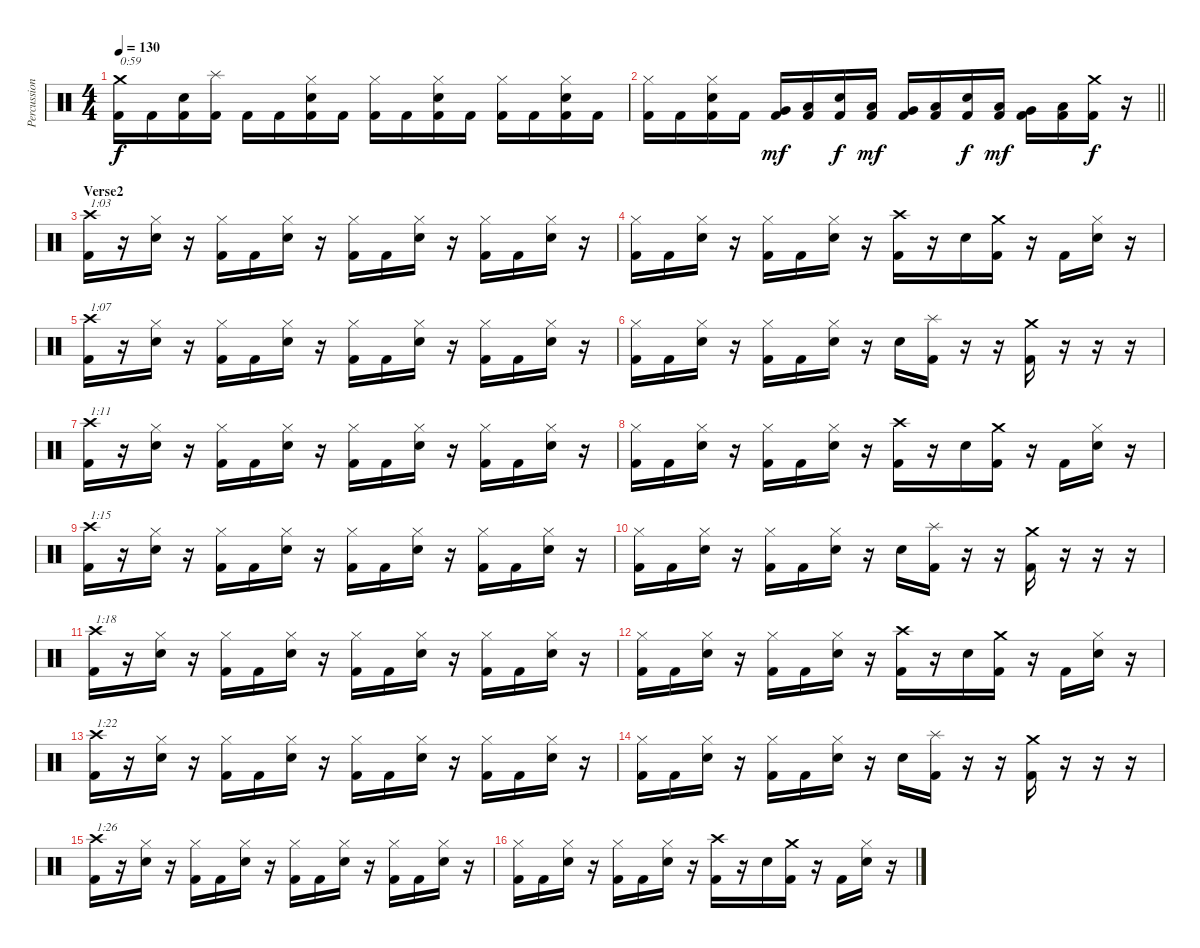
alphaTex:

\track ("Percussion" "Percussion") {instrument percussion}
\staff {score}
\articulation defaults
\ts (4 4)
\tempo 130
\clef neutral
\ks c
("Crash medium (hit)" "Kick (hit) 2").16{txt "0:59" dy f} "Kick (hit) 2".16 ("Electric Snare (hit)" "Kick (hit) 2").16 ("Splash (hit)" "Kick (hit) 2").16 "Kick (hit) 2".16 "Kick (hit) 2".16 ("Hi-Hat (closed)" "Electric Snare (hit)" "Kick (hit) 2").16 "Kick (hit) 2".16 ("Hi-Hat (closed)" "Kick (hit) 2").16 "Kick (hit) 2".16 ("Hi-Hat (closed)" "Electric Snare (hit)" "Kick (hit) 2").16 "Kick (hit) 2".16 ("Hi-Hat (closed)" "Kick (hit) 2").16 "Kick (hit) 2".16 ("Hi-Hat (closed)" "Electric Snare (hit)" "Kick (hit) 2").16 "Kick (hit) 2".16 |
\barLineRight lightlight
("Hi-Hat (closed)" "Kick (hit) 2").16 "Kick (hit) 2".16 ("Hi-Hat (closed)" "Electric Snare (hit)" "Kick (hit) 2").16 "Kick (hit) 2".16 ("Very Low Tom (hit)" "Kick (hit) 2").16{dy mf} ("Low Floor Tom (hit)" "Kick (hit) 2").16 ("Electric Snare (hit)" "Kick (hit) 2").16{dy f} ("Low Floor Tom (hit)" "Kick (hit) 2").16{dy mf} ("Very Low Tom (hit)" "Kick (hit) 2").16 ("Low Floor Tom (hit)" "Kick (hit) 2").16 ("Electric Snare (hit)" "Kick (hit) 2").16{dy f} ("Low Floor Tom (hit)" "Kick (hit) 2").16{dy mf} ("Very Low Tom (hit)" "Kick (hit) 2").16 ("Low Floor Tom (hit)" "Kick (hit) 2").16 ("Crash medium (hit)" "Kick (hit) 2").16{dy f} r.16 |
\section ("" "Verse2")
("Crash high (hit)" "Kick (hit) 2").16{txt "1:03"} r.16 ("Hi-Hat (closed)" "Electric Snare (hit)").16 r.16 ("Hi-Hat (closed)" "Kick (hit) 2").16 "Kick (hit) 2".16 ("Hi-Hat (closed)" "Electric Snare (hit)").16 r.16 ("Hi-Hat (closed)" "Kick (hit) 2").16 "Kick (hit) 2".16 ("Hi-Hat (closed)" "Electric Snare (hit)").16 r.16 ("Hi-Hat (closed)" "Kick (hit) 2").16 "Kick (hit) 2".16 ("Hi-Hat (closed)" "Electric Snare (hit)").16 r.16 |
("Hi-Hat (closed)" "Kick (hit) 2").16 "Kick (hit) 2".16 ("Hi-Hat (closed)" "Electric Snare (hit)").16 r.16 ("Hi-Hat (closed)" "Kick (hit) 2").16 "Kick (hit) 2".16 ("Hi-Hat (closed)" "Electric Snare (hit)").16 r.16 ("Crash high (hit)" "Kick (hit) 2").16 r.16 "Electric Snare (hit)".16 ("Crash medium (hit)" "Kick (hit) 2").16 r.16 "Kick (hit) 2".16 ("Hi-Hat (closed)" "Electric Snare (hit)").16 r.16 |
("Crash high (hit)" "Kick (hit) 2").16{txt "1:07"} r.16 ("Hi-Hat (closed)" "Electric Snare (hit)").16 r.16 ("Hi-Hat (closed)" "Kick (hit) 2").16 "Kick (hit) 2".16 ("Hi-Hat (closed)" "Electric Snare (hit)").16 r.16 ("Hi-Hat (closed)" "Kick (hit) 2").16 "Kick (hit) 2".16 ("Hi-Hat (closed)" "Electric Snare (hit)").16 r.16 ("Hi-Hat (closed)" "Kick (hit) 2").16 "Kick (hit) 2".16 ("Hi-Hat (closed)" "Electric Snare (hit)").16 r.16 |
("Hi-Hat (closed)" "Kick (hit) 2").16 "Kick (hit) 2".16 ("Hi-Hat (closed)" "Electric Snare (hit)").16 r.16 ("Hi-Hat (closed)" "Kick (hit) 2").16 "Kick (hit) 2".16 ("Hi-Hat (closed)" "Electric Snare (hit)").16 r.16 "Electric Snare (hit)".16 ("Splash (hit)" "Kick (hit) 2").16 r.16 r.16 ("Crash medium (hit)" "Kick (hit) 2").16 r.16 r.16 r.16 |
("Crash high (hit)" "Kick (hit) 2").16{txt "1:11"} r.16 ("Hi-Hat (closed)" "Electric Snare (hit)").16 r.16 ("Hi-Hat (closed)" "Kick (hit) 2").16 "Kick (hit) 2".16 ("Hi-Hat (closed)" "Electric Snare (hit)").16 r.16 ("Hi-Hat (closed)" "Kick (hit) 2").16 "Kick (hit) 2".16 ("Hi-Hat (closed)" "Electric Snare (hit)").16 r.16 ("Hi-Hat (closed)" "Kick (hit) 2").16 "Kick (hit) 2".16 ("Hi-Hat (closed)" "Electric Snare (hit)").16 r.16 |
("Hi-Hat (closed)" "Kick (hit) 2").16 "Kick (hit) 2".16 ("Hi-Hat (closed)" "Electric Snare (hit)").16 r.16 ("Hi-Hat (closed)" "Kick (hit) 2").16 "Kick (hit) 2".16 ("Hi-Hat (closed)" "Electric Snare (hit)").16 r.16 ("Crash high (hit)" "Kick (hit) 2").16 r.16 "Electric Snare (hit)".16 ("Crash medium (hit)" "Kick (hit) 2").16 r.16 "Kick (hit) 2".16 ("Hi-Hat (closed)" "Electric Snare (hit)").16 r.16 |
("Crash high (hit)" "Kick (hit) 2").16{txt "1:15"} r.16 ("Hi-Hat (closed)" "Electric Snare (hit)").16 r.16 ("Hi-Hat (closed)" "Kick (hit) 2").16 "Kick (hit) 2".16 ("Hi-Hat (closed)" "Electric Snare (hit)").16 r.16 ("Hi-Hat (closed)" "Kick (hit) 2").16 "Kick (hit) 2".16 ("Hi-Hat (closed)" "Electric Snare (hit)").16 r.16 ("Hi-Hat (closed)" "Kick (hit) 2").16 "Kick (hit) 2".16 ("Hi-Hat (closed)" "Electric Snare (hit)").16 r.16 |
("Hi-Hat (closed)" "Kick (hit) 2").16 "Kick (hit) 2".16 ("Hi-Hat (closed)" "Electric Snare (hit)").16 r.16 ("Hi-Hat (closed)" "Kick (hit) 2").16 "Kick (hit) 2".16 ("Hi-Hat (closed)" "Electric Snare (hit)").16 r.16 "Electric Snare (hit)".16 ("Splash (hit)" "Kick (hit) 2").16 r.16 r.16 ("Crash medium (hit)" "Kick (hit) 2").16 r.16 r.16 r.16 |
("Crash high (hit)" "Kick (hit) 2").16{txt "1:18"} r.16 ("Hi-Hat (closed)" "Electric Snare (hit)").16 r.16 ("Hi-Hat (closed)" "Kick (hit) 2").16 "Kick (hit) 2".16 ("Hi-Hat (closed)" "Electric Snare (hit)").16 r.16 ("Hi-Hat (closed)" "Kick (hit) 2").16 "Kick (hit) 2".16 ("Hi-Hat (closed)" "Electric Snare (hit)").16 r.16 ("Hi-Hat (closed)" "Kick (hit) 2").16 "Kick (hit) 2".16 ("Hi-Hat (closed)" "Electric Snare (hit)").16 r.16 |
("Hi-Hat (closed)" "Kick (hit) 2").16 "Kick (hit) 2".16 ("Hi-Hat (closed)" "Electric Snare (hit)").16 r.16 ("Hi-Hat (closed)" "Kick (hit) 2").16 "Kick (hit) 2".16 ("Hi-Hat (closed)" "Electric Snare (hit)").16 r.16 ("Crash high (hit)" "Kick (hit) 2").16 r.16 "Electric Snare (hit)".16 ("Crash medium (hit)" "Kick (hit) 2").16 r.16 "Kick (hit) 2".16 ("Hi-Hat (closed)" "Electric Snare (hit)").16 r.16 |
("Crash high (hit)" "Kick (hit) 2").16{txt "1:22"} r.16 ("Hi-Hat (closed)" "Electric Snare (hit)").16 r.16 ("Hi-Hat (closed)" "Kick (hit) 2").16 "Kick (hit) 2".16 ("Hi-Hat (closed)" "Electric Snare (hit)").16 r.16 ("Hi-Hat (closed)" "Kick (hit) 2").16 "Kick (hit) 2".16 ("Hi-Hat (closed)" "Electric Snare (hit)").16 r.16 ("Hi-Hat (closed)" "Kick (hit) 2").16 "Kick (hit) 2".16 ("Hi-Hat (closed)" "Electric Snare (hit)").16 r.16 |
("Hi-Hat (closed)" "Kick (hit) 2").16 "Kick (hit) 2".16 ("Hi-Hat (closed)" "Electric Snare (hit)").16 r.16 ("Hi-Hat (closed)" "Kick (hit) 2").16 "Kick (hit) 2".16 ("Hi-Hat (closed)" "Electric Snare (hit)").16 r.16 "Electric Snare (hit)".16 ("Splash (hit)" "Kick (hit) 2").16 r.16 r.16 ("Crash medium (hit)" "Kick (hit) 2").16 r.16 r.16 r.16 |
("Crash high (hit)" "Kick (hit) 2").16{txt "1:26"} r.16 ("Hi-Hat (closed)" "Electric Snare (hit)").16 r.16 ("Hi-Hat (closed)" "Kick (hit) 2").16 "Kick (hit) 2".16 ("Hi-Hat (closed)" "Electric Snare (hit)").16 r.16 ("Hi-Hat (closed)" "Kick (hit) 2").16 "Kick (hit) 2".16 ("Hi-Hat (closed)" "Electric Snare (hit)").16 r.16 ("Hi-Hat (closed)" "Kick (hit) 2").16 "Kick (hit) 2".16 ("Hi-Hat (closed)" "Electric Snare (hit)").16 r.16 |
("Hi-Hat (closed)" "Kick (hit) 2").16 "Kick (hit) 2".16 ("Hi-Hat (closed)" "Electric Snare (hit)").16 r.16 ("Hi-Hat (closed)" "Kick (hit) 2").16 "Kick (hit) 2".16 ("Hi-Hat (closed)" "Electric Snare (hit)").16 r.16 ("Crash high (hit)" "Kick (hit) 2").16 r.16 "Electric Snare (hit)".16 ("Crash medium (hit)" "Kick (hit) 2").16 r.16 "Kick (hit) 2".16 ("Hi-Hat (closed)" "Electric Snare (hit)").16 r.16
